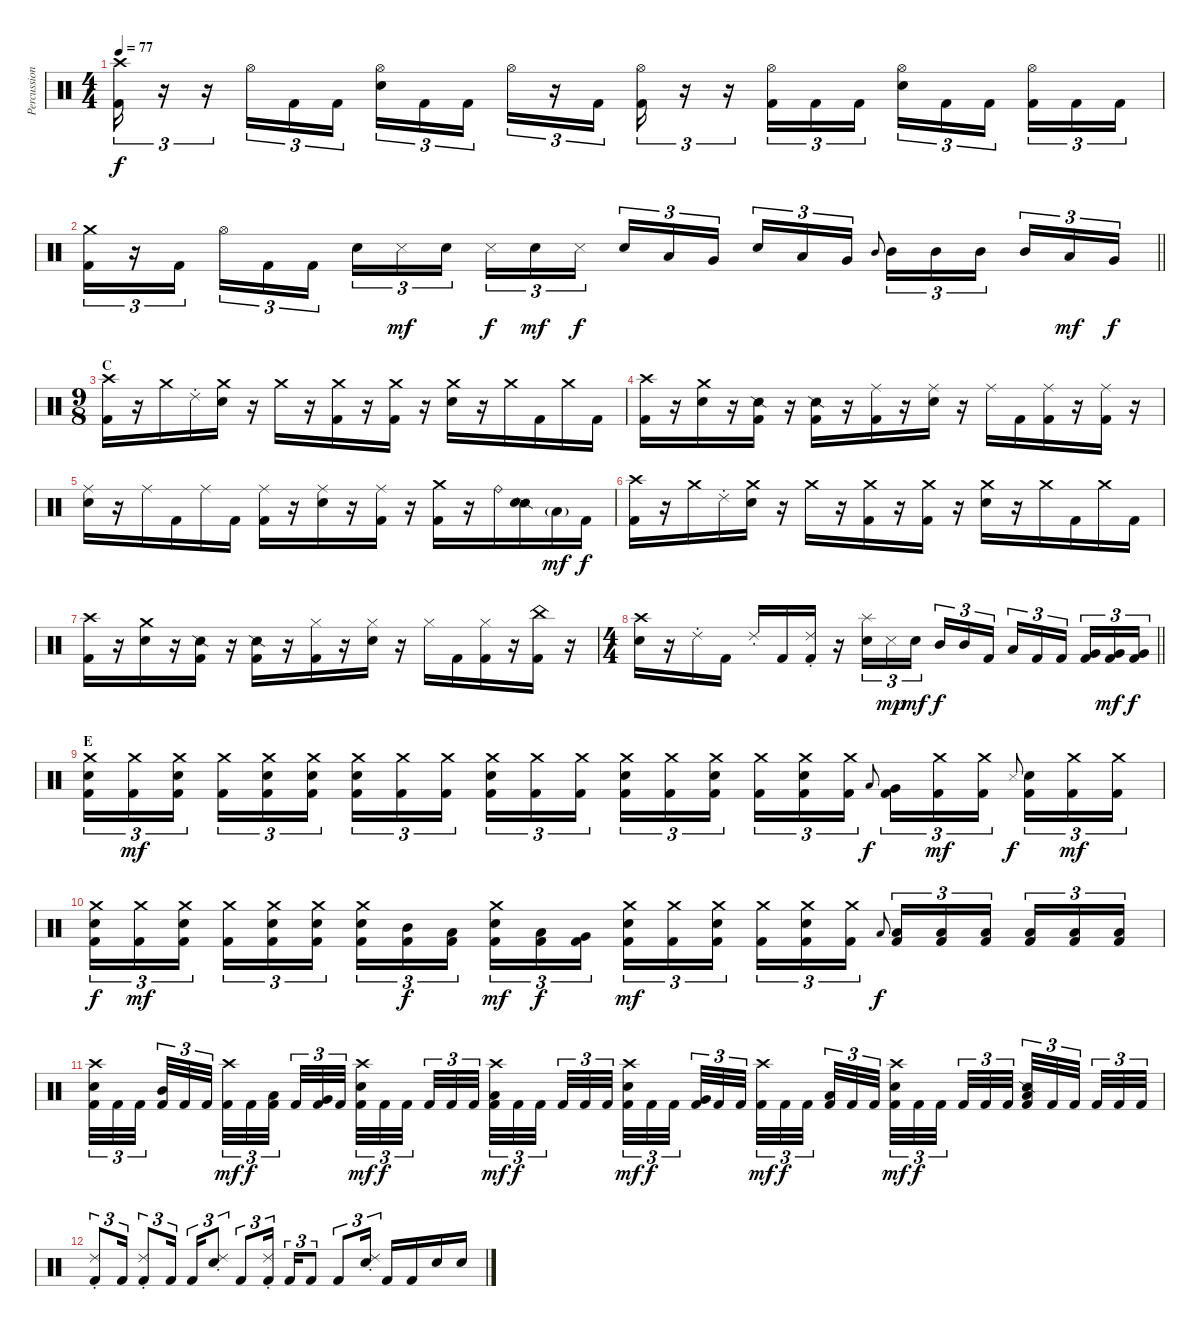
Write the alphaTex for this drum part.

\track ("Percussion" "Percussion") {instrument percussion}
\staff {score}
\articulation defaults
\ts (4 4)
\tempo 77
\clef neutral
\ks c
("Crash high (hit)" "Kick (hit) 2").16{tu (3 2) dy f} r.16{tu (3 2)} r.16{tu (3 2)} "Hi-Hat (open)".16{tu (3 2)} "Kick (hit) 2".16{tu (3 2)} "Kick (hit) 2".16{tu (3 2)} ("Hi-Hat (open)" "Snare (hit) 2").16{tu (3 2)} "Kick (hit) 2".16{tu (3 2)} "Kick (hit) 2".16{tu (3 2) beam splitsecondary} "Hi-Hat (open)".16{tu (3 2)} r.16{tu (3 2)} "Kick (hit) 2".16{tu (3 2)} ("Hi-Hat (open)" "Kick (hit) 2").16{tu (3 2)} r.16{tu (3 2)} r.16{tu (3 2)} ("Hi-Hat (open)" "Kick (hit) 2").16{tu (3 2)} "Kick (hit) 2".16{tu (3 2)} "Kick (hit) 2".16{tu (3 2)} ("Hi-Hat (open)" "Snare (hit) 2").16{tu (3 2)} "Kick (hit) 2".16{tu (3 2)} "Kick (hit) 2".16{tu (3 2) beam splitsecondary} ("Hi-Hat (open)" "Kick (hit) 2").16{tu (3 2)} "Kick (hit) 2".16{tu (3 2)} "Kick (hit) 2".16{tu (3 2)} |
\barLineRight lightlight
("Crash medium (hit)" "Kick (hit) 2").16{tu (3 2)} r.16{tu (3 2)} "Kick (hit) 2".16{tu (3 2) beam splitsecondary} "Hi-Hat (open)".16{tu (3 2)} "Kick (hit) 2".16{tu (3 2)} "Kick (hit) 2".16{tu (3 2)} "Snare (hit) 2".16{tu (3 2)} "Metronome (hit)".16{tu (3 2) dy mf} "Snare (hit) 2".16{tu (3 2) beam splitsecondary} "Metronome (hit)".16{tu (3 2) dy f} "Snare (hit) 2".16{tu (3 2) dy mf} "Metronome (hit)".16{tu (3 2) dy f} "Snare (hit) 2".16{tu (3 2)} "Low Tom (hit)".16{tu (3 2)} "Very Low Tom (hit)".16{tu (3 2) beam splitsecondary} "Snare (hit) 2".16{tu (3 2)} "Low Tom (hit)".16{tu (3 2)} "Very Low Tom (hit)".16{tu (3 2)} "Mid Tom (hit)".8{gr onbeat} "Mid Tom (hit)".16{tu (3 2)} "Mid Tom (hit)".16{tu (3 2)} "Mid Tom (hit)".16{tu (3 2) beam splitsecondary} "Mid Tom (hit)".16{tu (3 2)} "Low Tom (hit)".16{tu (3 2) dy mf} "Very Low Tom (hit)".16{tu (3 2) dy f} |
\ts (9 8)
\section ("" "C")
("Crash high (hit)" "Kick (hit) 2").16 r.16 "Crash medium (hit)".16 "Ride (choke) 2".16 ("Crash medium (hit)" "Snare (hit) 2").16 r.16 "Crash medium (hit)".16 r.16 ("Crash medium (hit)" "Kick (hit) 2").16 r.16 ("Crash medium (hit)" "Kick (hit) 2").16 r.16 ("Crash medium (hit)" "Snare (hit) 2").16 r.16 "Crash medium (hit)".16 "Kick (hit) 2".16 "Crash medium (hit)".16 "Kick (hit) 2".16 |
("Crash high (hit)" "Kick (hit) 2").16 r.16 ("Crash medium (hit)" "Snare (hit) 2").16 r.16 ("Snare (side stick) 2" "Kick (hit) 2").16 r.16 ("Snare (side stick) 2" "Kick (hit) 2").16 r.16 ("Ride (middle)" "Kick (hit) 2").16 r.16 ("Ride (middle)" "Snare (hit) 2").16 r.16 "Ride (middle)".16 "Kick (hit) 2".16 ("Ride (middle)" "Kick (hit) 2").16 r.16 ("Ride (middle)" "Kick (hit) 2").16 r.16 |
("Ride (middle)" "Snare (hit) 2").16 r.16 "Ride (middle)".16 "Kick (hit) 2".16 "Ride (middle)".16 "Kick (hit) 2".16 ("Ride (middle)" "Kick (hit) 2").16 r.16 ("Ride (middle)" "Snare (hit) 2").16 r.16 ("Ride (middle)" "Kick (hit) 2").16 r.16 ("Crash medium (hit)" "Kick (hit) 2").16 r.16 "Ride (bell)".16 ("Snare (side stick) 2" "Snare (hit) 2").16 "Low Tom (hit)"{g}.16{dy mf} "Kick (hit) 2".16{dy f} |
("Crash high (hit)" "Kick (hit) 2").16 r.16 "Crash medium (hit)".16 "Ride (choke) 2".16 ("Crash medium (hit)" "Snare (hit) 2").16 r.16 "Crash medium (hit)".16 r.16 ("Crash medium (hit)" "Kick (hit) 2").16 r.16 ("Crash medium (hit)" "Kick (hit) 2").16 r.16 ("Crash medium (hit)" "Snare (hit) 2").16 r.16 "Crash medium (hit)".16 "Kick (hit) 2".16 "Crash medium (hit)".16 "Kick (hit) 2".16 |
("Crash high (hit)" "Kick (hit) 2").16 r.16 ("Crash medium (hit)" "Snare (hit) 2").16 r.16 ("Snare (side stick) 2" "Kick (hit) 2").16 r.16 ("Snare (side stick) 2" "Kick (hit) 2").16 r.16 ("Hi-Hat (closed)" "Kick (hit) 2").16 r.16 ("Hi-Hat (closed)" "Snare (hit) 2").16 r.16 "Hi-Hat (closed)".16 "Kick (hit) 2".16 ("Hi-Hat (closed)" "Kick (hit) 2").16 r.16 ("China (hit)" "Kick (hit) 2").16 r.16 |
\ts (4 4)
\barLineRight lightlight
("Crash high (hit)" "Snare (hit) 2").16 r.16 "Ride (choke) 2".16 "Kick (hit) 2".16 "Ride (choke) 2".16 "Kick (hit) 2".16 ("Ride (choke) 2" "Kick (hit) 2").16 r.16 ("Splash (hit)" "Snare (hit) 2").16{tu (3 2)} "Metronome (hit)".16{tu (3 2) dy mp} "Snare (hit) 2".16{tu (3 2) dy mf beam splitsecondary} "Mid Tom (hit)".16{tu (3 2) dy f} "Mid Tom (hit)".16{tu (3 2)} "Kick (hit) 2".16{tu (3 2)} "Low Tom (hit)".16{tu (3 2)} "Kick (hit) 2".16{tu (3 2)} "Kick (hit) 2".16{tu (3 2) beam splitsecondary} ("Very Low Tom (hit)" "Kick (hit) 2").16{tu (3 2)} ("Very Low Tom (hit)" "Kick (hit) 2").16{tu (3 2) dy mf} ("Very Low Tom (hit)" "Kick (hit) 2").16{tu (3 2) dy f} |
\section ("" "E")
("Crash medium (hit)" "Snare (hit) 2" "Kick (hit) 2").16{tu (3 2)} ("Crash medium (hit)" "Kick (hit) 2").16{tu (3 2) dy mf} ("Crash medium (hit)" "Snare (hit) 2" "Kick (hit) 2").16{tu (3 2) beam splitsecondary} ("Crash medium (hit)" "Kick (hit) 2").16{tu (3 2)} ("Crash medium (hit)" "Snare (hit) 2" "Kick (hit) 2").16{tu (3 2)} ("Crash medium (hit)" "Snare (hit) 2" "Kick (hit) 2").16{tu (3 2)} ("Crash medium (hit)" "Snare (hit) 2" "Kick (hit) 2").16{tu (3 2)} ("Crash medium (hit)" "Kick (hit) 2").16{tu (3 2)} ("Crash medium (hit)" "Kick (hit) 2").16{tu (3 2) beam splitsecondary} ("Crash medium (hit)" "Snare (hit) 2" "Kick (hit) 2").16{tu (3 2)} ("Crash medium (hit)" "Kick (hit) 2").16{tu (3 2)} ("Crash medium (hit)" "Kick (hit) 2").16{tu (3 2)} ("Crash medium (hit)" "Snare (hit) 2" "Kick (hit) 2").16{tu (3 2)} ("Crash medium (hit)" "Kick (hit) 2").16{tu (3 2)} ("Crash medium (hit)" "Snare (hit) 2" "Kick (hit) 2").16{tu (3 2) beam splitsecondary} ("Crash medium (hit)" "Kick (hit) 2").16{tu (3 2)} ("Crash medium (hit)" "Snare (hit) 2" "Kick (hit) 2").16{tu (3 2)} ("Crash medium (hit)" "Kick (hit) 2").16{tu (3 2)} "Low Tom (hit)".8{gr onbeat dy f} ("Very Low Tom (hit)" "Kick (hit) 2").16{tu (3 2)} ("Crash medium (hit)" "Kick (hit) 2").16{tu (3 2) dy mf} ("Crash medium (hit)" "Kick (hit) 2").16{tu (3 2)} "Metronome (hit)".8{gr onbeat dy f beam splitsecondary} ("Snare (hit) 2" "Kick (hit) 2").16{tu (3 2)} ("Crash medium (hit)" "Kick (hit) 2").16{tu (3 2) dy mf} ("Crash medium (hit)" "Kick (hit) 2").16{tu (3 2)} |
("Crash medium (hit)" "Snare (hit) 2" "Kick (hit) 2").16{tu (3 2) dy f} ("Crash medium (hit)" "Kick (hit) 2").16{tu (3 2) dy mf} ("Crash medium (hit)" "Snare (hit) 2" "Kick (hit) 2").16{tu (3 2) beam splitsecondary} ("Crash medium (hit)" "Kick (hit) 2").16{tu (3 2)} ("Crash medium (hit)" "Snare (hit) 2" "Kick (hit) 2").16{tu (3 2)} ("Crash medium (hit)" "Snare (hit) 2" "Kick (hit) 2").16{tu (3 2)} ("Crash medium (hit)" "Snare (hit) 2" "Kick (hit) 2").16{tu (3 2)} ("Mid Tom (hit)" "Kick (hit) 2").16{tu (3 2) dy f} ("Low Tom (hit)" "Kick (hit) 2").16{tu (3 2) beam splitsecondary} ("Crash medium (hit)" "Snare (hit) 2" "Kick (hit) 2").16{tu (3 2) dy mf} ("Low Tom (hit)" "Kick (hit) 2").16{tu (3 2) dy f} ("Very Low Tom (hit)" "Kick (hit) 2").16{tu (3 2)} ("Crash medium (hit)" "Snare (hit) 2" "Kick (hit) 2").16{tu (3 2) dy mf} ("Crash medium (hit)" "Kick (hit) 2").16{tu (3 2)} ("Crash medium (hit)" "Snare (hit) 2" "Kick (hit) 2").16{tu (3 2) beam splitsecondary} ("Crash medium (hit)" "Kick (hit) 2").16{tu (3 2)} ("Crash medium (hit)" "Snare (hit) 2" "Kick (hit) 2").16{tu (3 2)} ("Crash medium (hit)" "Kick (hit) 2").16{tu (3 2)} "Low Tom (hit)".8{gr onbeat dy f} ("Low Tom (hit)" "Kick (hit) 2").16{tu (3 2)} ("Low Tom (hit)" "Kick (hit) 2").16{tu (3 2)} ("Low Tom (hit)" "Kick (hit) 2").16{tu (3 2) beam splitsecondary} ("Low Tom (hit)" "Kick (hit) 2").16{tu (3 2)} ("Low Tom (hit)" "Kick (hit) 2").16{tu (3 2)} ("Low Tom (hit)" "Kick (hit) 2").16{tu (3 2)} |
("Crash high (hit)" "Snare (hit) 2" "Kick (hit) 2").32{tu (3 2)} "Kick (hit) 2".32{tu (3 2)} "Kick (hit) 2".32{tu (3 2) beam splitsecondary} ("Mid Tom (hit)" "Kick (hit) 2").32{tu (3 2)} "Kick (hit) 2".32{tu (3 2)} "Kick (hit) 2".32{tu (3 2) beam splitsecondary} ("Crash high (hit)" "Kick (hit) 2").32{tu (3 2) dy mf} "Kick (hit) 2".32{tu (3 2) dy f} ("Low Tom (hit)" "Kick (hit) 2").32{tu (3 2) beam splitsecondary} "Kick (hit) 2".32{tu (3 2)} ("Very Low Tom (hit)" "Kick (hit) 2").32{tu (3 2)} "Kick (hit) 2".32{tu (3 2)} ("Crash high (hit)" "Snare (hit) 2" "Kick (hit) 2").32{tu (3 2) dy mf} "Kick (hit) 2".32{tu (3 2) dy f} "Kick (hit) 2".32{tu (3 2) beam splitsecondary} "Kick (hit) 2".32{tu (3 2)} "Kick (hit) 2".32{tu (3 2)} "Kick (hit) 2".32{tu (3 2) beam splitsecondary} ("Crash high (hit)" "Low Tom (hit)" "Kick (hit) 2").32{tu (3 2) dy mf} "Kick (hit) 2".32{tu (3 2) dy f} "Kick (hit) 2".32{tu (3 2) beam splitsecondary} "Kick (hit) 2".32{tu (3 2)} "Kick (hit) 2".32{tu (3 2)} "Kick (hit) 2".32{tu (3 2)} ("Crash high (hit)" "Snare (hit) 2" "Kick (hit) 2").32{tu (3 2) dy mf} "Kick (hit) 2".32{tu (3 2) dy f} "Kick (hit) 2".32{tu (3 2) beam splitsecondary} ("Very Low Tom (hit)" "Kick (hit) 2").32{tu (3 2)} "Kick (hit) 2".32{tu (3 2)} "Kick (hit) 2".32{tu (3 2) beam splitsecondary} ("Crash high (hit)" "Kick (hit) 2").32{tu (3 2) dy mf} "Kick (hit) 2".32{tu (3 2) dy f} "Kick (hit) 2".32{tu (3 2) beam splitsecondary} ("Low Tom (hit)" "Kick (hit) 2").32{tu (3 2)} "Kick (hit) 2".32{tu (3 2)} "Kick (hit) 2".32{tu (3 2)} ("Crash high (hit)" "Snare (hit) 2" "Kick (hit) 2").32{tu (3 2) dy mf} "Kick (hit) 2".32{tu (3 2) dy f} "Kick (hit) 2".32{tu (3 2) beam splitsecondary} "Kick (hit) 2".32{tu (3 2)} "Kick (hit) 2".32{tu (3 2)} "Kick (hit) 2".32{tu (3 2) beam splitsecondary} ("Snare (side stick) 2" "Low Floor Tom (hit)" "Kick (hit) 2").32{tu (3 2)} "Kick (hit) 2".32{tu (3 2)} "Kick (hit) 2".32{tu (3 2) beam splitsecondary} "Kick (hit) 2".32{tu (3 2)} "Kick (hit) 2".32{tu (3 2)} "Kick (hit) 2".32{tu (3 2)} |
("Ride (choke) 2" "Kick (hit) 2").8{tu (3 2)} "Kick (hit) 2".16{tu (3 2)} ("Ride (choke) 2" "Kick (hit) 2").8{tu (3 2)} "Kick (hit) 2".16{tu (3 2)} "Kick (hit) 2".16{tu (3 2)} ("Ride (choke) 2" "Snare (hit) 2").8{tu (3 2)} "Kick (hit) 2".8{tu (3 2)} ("Ride (choke) 2" "Kick (hit) 2").16{tu (3 2)} "Kick (hit) 2".16{tu (3 2)} "Kick (hit) 2".8{tu (3 2)} "Kick (hit) 2".8{tu (3 2)} ("Ride (choke) 2" "Snare (hit) 2").16{tu (3 2)} "Kick (hit) 2".16 "Kick (hit) 2".16 "Snare (hit) 2".16 "Snare (hit) 2".16
